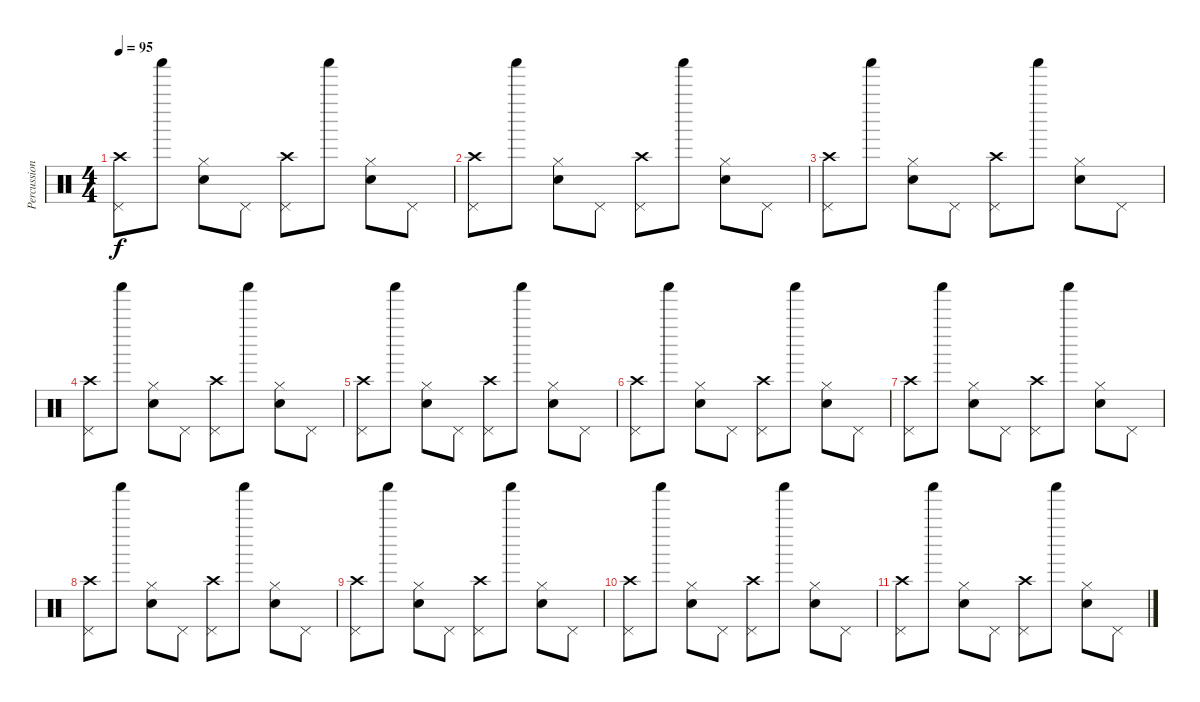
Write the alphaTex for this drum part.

\track ("Percussion" "Percussion") {instrument percussion}
\staff {score}
\articulation defaults
\ts (4 4)
\tempo 95
\clef neutral
\ks c
("Pedal Hi-Hat (hit)" "Crash high (hit)").8{dy f} "Shaker (hit)".8 ("Hi-Hat (closed)" "Electric Snare (hit)").8 "Pedal Hi-Hat (hit)".8 ("Pedal Hi-Hat (hit)" "Crash high (hit)").8 "Shaker (hit)".8 ("Hi-Hat (closed)" "Electric Snare (hit)").8 "Pedal Hi-Hat (hit)".8 |
("Pedal Hi-Hat (hit)" "Crash high (hit)").8 "Shaker (hit)".8 ("Hi-Hat (closed)" "Electric Snare (hit)").8 "Pedal Hi-Hat (hit)".8 ("Pedal Hi-Hat (hit)" "Crash high (hit)").8 "Shaker (hit)".8 ("Hi-Hat (closed)" "Electric Snare (hit)").8 "Pedal Hi-Hat (hit)".8 |
("Pedal Hi-Hat (hit)" "Crash high (hit)").8 "Shaker (hit)".8 ("Hi-Hat (closed)" "Electric Snare (hit)").8 "Pedal Hi-Hat (hit)".8 ("Pedal Hi-Hat (hit)" "Crash high (hit)").8 "Shaker (hit)".8 ("Hi-Hat (closed)" "Electric Snare (hit)").8 "Pedal Hi-Hat (hit)".8 |
("Pedal Hi-Hat (hit)" "Crash high (hit)").8 "Shaker (hit)".8 ("Hi-Hat (closed)" "Electric Snare (hit)").8 "Pedal Hi-Hat (hit)".8 ("Pedal Hi-Hat (hit)" "Crash high (hit)").8 "Shaker (hit)".8 ("Hi-Hat (closed)" "Electric Snare (hit)").8 "Pedal Hi-Hat (hit)".8 |
("Pedal Hi-Hat (hit)" "Crash high (hit)").8 "Shaker (hit)".8 ("Hi-Hat (closed)" "Electric Snare (hit)").8 "Pedal Hi-Hat (hit)".8 ("Pedal Hi-Hat (hit)" "Crash high (hit)").8 "Shaker (hit)".8 ("Hi-Hat (closed)" "Electric Snare (hit)").8 "Pedal Hi-Hat (hit)".8 |
("Pedal Hi-Hat (hit)" "Crash high (hit)").8 "Shaker (hit)".8 ("Hi-Hat (closed)" "Electric Snare (hit)").8 "Pedal Hi-Hat (hit)".8 ("Pedal Hi-Hat (hit)" "Crash high (hit)").8 "Shaker (hit)".8 ("Hi-Hat (closed)" "Electric Snare (hit)").8 "Pedal Hi-Hat (hit)".8 |
("Pedal Hi-Hat (hit)" "Crash high (hit)").8 "Shaker (hit)".8 ("Hi-Hat (closed)" "Electric Snare (hit)").8 "Pedal Hi-Hat (hit)".8 ("Pedal Hi-Hat (hit)" "Crash high (hit)").8 "Shaker (hit)".8 ("Hi-Hat (closed)" "Electric Snare (hit)").8 "Pedal Hi-Hat (hit)".8 |
("Pedal Hi-Hat (hit)" "Crash high (hit)").8 "Shaker (hit)".8 ("Hi-Hat (closed)" "Electric Snare (hit)").8 "Pedal Hi-Hat (hit)".8 ("Pedal Hi-Hat (hit)" "Crash high (hit)").8 "Shaker (hit)".8 ("Hi-Hat (closed)" "Electric Snare (hit)").8 "Pedal Hi-Hat (hit)".8 |
("Pedal Hi-Hat (hit)" "Crash high (hit)").8 "Shaker (hit)".8 ("Hi-Hat (closed)" "Electric Snare (hit)").8 "Pedal Hi-Hat (hit)".8 ("Pedal Hi-Hat (hit)" "Crash high (hit)").8 "Shaker (hit)".8 ("Hi-Hat (closed)" "Electric Snare (hit)").8 "Pedal Hi-Hat (hit)".8 |
("Pedal Hi-Hat (hit)" "Crash high (hit)").8 "Shaker (hit)".8 ("Hi-Hat (closed)" "Electric Snare (hit)").8 "Pedal Hi-Hat (hit)".8 ("Pedal Hi-Hat (hit)" "Crash high (hit)").8 "Shaker (hit)".8 ("Hi-Hat (closed)" "Electric Snare (hit)").8 "Pedal Hi-Hat (hit)".8 |
("Pedal Hi-Hat (hit)" "Crash high (hit)").8 "Shaker (hit)".8 ("Hi-Hat (closed)" "Electric Snare (hit)").8 "Pedal Hi-Hat (hit)".8 ("Pedal Hi-Hat (hit)" "Crash high (hit)").8 "Shaker (hit)".8 ("Hi-Hat (closed)" "Electric Snare (hit)").8 "Pedal Hi-Hat (hit)".8
